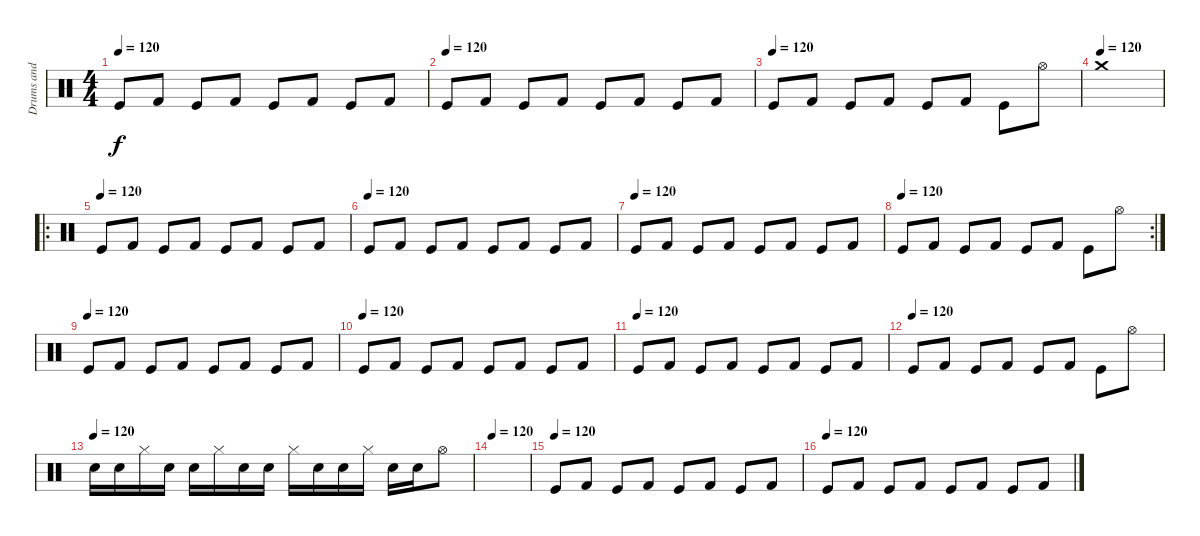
\track ("Drums and Percussion" "Drums and ") {instrument percussion}
\staff {score}
\articulation defaults
\ts (4 4)
\tempo 120
\clef neutral
\ks c "Kick (hit)".8{dy f} "Kick (hit) 2".8 "Kick (hit)".8 "Kick (hit) 2".8 "Kick (hit)".8 "Kick (hit) 2".8 "Kick (hit)".8 "Kick (hit) 2".8
|
\tempo (120)
"Kick (hit)".8 "Kick (hit) 2".8 "Kick (hit)".8 "Kick (hit) 2".8 "Kick (hit)".8 "Kick (hit) 2".8 "Kick (hit)".8 "Kick (hit) 2".8 |
\tempo (120)
"Kick (hit)".8 "Kick (hit) 2".8 "Kick (hit)".8 "Kick (hit) 2".8 "Kick (hit)".8 "Kick (hit) 2".8 "Kick (hit)".8 "Hi-Hat (open)".8 |
\tempo (120)
"Crash medium (hit)".1 |
\ro
\tempo (120)
"Kick (hit)".8 "Kick (hit) 2".8 "Kick (hit)".8 "Kick (hit) 2".8 "Kick (hit)".8 "Kick (hit) 2".8 "Kick (hit)".8 "Kick (hit) 2".8 |
\tempo (120)
"Kick (hit)".8 "Kick (hit) 2".8 "Kick (hit)".8 "Kick (hit) 2".8 "Kick (hit)".8 "Kick (hit) 2".8 "Kick (hit)".8 "Kick (hit) 2".8 |
\tempo (120)
"Kick (hit)".8 "Kick (hit) 2".8 "Kick (hit)".8 "Kick (hit) 2".8 "Kick (hit)".8 "Kick (hit) 2".8 "Kick (hit)".8 "Kick (hit) 2".8 |
\rc 2
\tempo (120)
"Kick (hit)".8 "Kick (hit) 2".8 "Kick (hit)".8 "Kick (hit) 2".8 "Kick (hit)".8 "Kick (hit) 2".8 "Kick (hit)".8 "Hi-Hat (open)".8 |
\tempo (120)
"Kick (hit)".8 "Kick (hit) 2".8 "Kick (hit)".8 "Kick (hit) 2".8 "Kick (hit)".8 "Kick (hit) 2".8 "Kick (hit)".8 "Kick (hit) 2".8 |
\tempo (120)
"Kick (hit)".8 "Kick (hit) 2".8 "Kick (hit)".8 "Kick (hit) 2".8 "Kick (hit)".8 "Kick (hit) 2".8 "Kick (hit)".8 "Kick (hit) 2".8 |
\tempo (120)
"Kick (hit)".8 "Kick (hit) 2".8 "Kick (hit)".8 "Kick (hit) 2".8 "Kick (hit)".8 "Kick (hit) 2".8 "Kick (hit)".8 "Kick (hit) 2".8 |
\tempo (120)
"Kick (hit)".8 "Kick (hit) 2".8 "Kick (hit)".8 "Kick (hit) 2".8 "Kick (hit)".8 "Kick (hit) 2".8 "Kick (hit)".8 "Hi-Hat (open)".8 |
\tempo (120)
"Snare (hit) 2".16 "Electric Snare (hit)".16 "Hi-Hat (closed)".16 "Snare (hit) 2".16 "Electric Snare (hit)".16 "Hi-Hat (closed)".16 "Snare (hit) 2".16 "Electric Snare (hit)".16 "Hi-Hat (closed)".16 "Snare (hit) 2".16 "Electric Snare (hit)".16 "Hi-Hat (closed)".16 "Snare (hit) 2".16 "Electric Snare (hit)".16 "Hi-Hat (open)".8 |
\tempo 120
|
\tempo (120)
"Kick (hit)".8 "Kick (hit) 2".8 "Kick (hit)".8 "Kick (hit) 2".8 "Kick (hit)".8 "Kick (hit) 2".8 "Kick (hit)".8 "Kick (hit) 2".8 |
\tempo (120)
"Kick (hit)".8 "Kick (hit) 2".8 "Kick (hit)".8 "Kick (hit) 2".8 "Kick (hit)".8 "Kick (hit) 2".8 "Kick (hit)".8 "Kick (hit) 2".8
